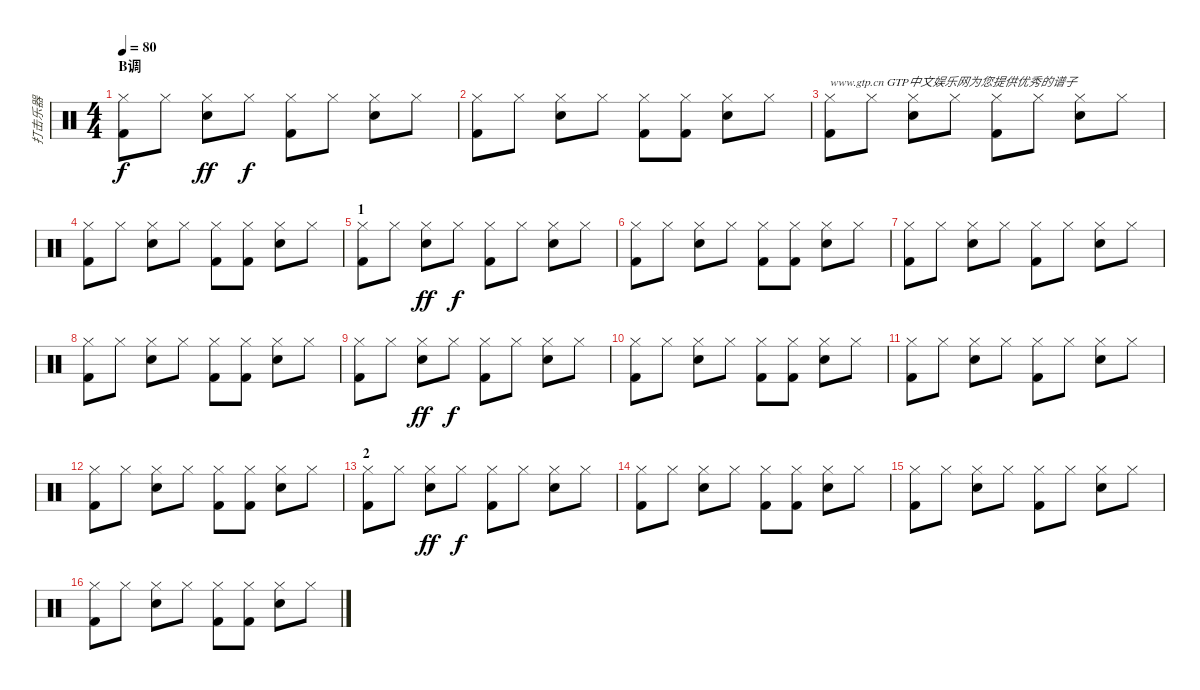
\track ("打击乐器" "打击乐器") {instrument percussion}
\staff {score}
\articulation defaults
\ts (4 4)
\section ("" "B调")
\tempo 80
\clef neutral
\ks c
("Hi-Hat (closed)" "Kick (hit) 2").8{dy f} "Hi-Hat (closed)".8 ("Hi-Hat (closed)" "Snare (hit) 2").8{dy ff} "Hi-Hat (closed)".8{dy f} ("Hi-Hat (closed)" "Kick (hit) 2").8 "Hi-Hat (closed)".8 ("Hi-Hat (closed)" "Snare (hit) 2").8 "Hi-Hat (closed)".8 |
("Hi-Hat (closed)" "Kick (hit) 2").8 "Hi-Hat (closed)".8 ("Hi-Hat (closed)" "Snare (hit) 2").8 "Hi-Hat (closed)".8 ("Hi-Hat (closed)" "Kick (hit) 2").8 ("Hi-Hat (closed)" "Kick (hit) 2").8 ("Hi-Hat (closed)" "Snare (hit) 2").8 "Hi-Hat (closed)".8 |
("Hi-Hat (closed)" "Kick (hit) 2").8{txt "www.gtp.cn GTP中文娱乐网为您提供优秀的谱子"} "Hi-Hat (closed)".8 ("Hi-Hat (closed)" "Snare (hit) 2").8 "Hi-Hat (closed)".8 ("Hi-Hat (closed)" "Kick (hit) 2").8 "Hi-Hat (closed)".8 ("Hi-Hat (closed)" "Snare (hit) 2").8 "Hi-Hat (closed)".8 |
("Hi-Hat (closed)" "Kick (hit) 2").8 "Hi-Hat (closed)".8 ("Hi-Hat (closed)" "Snare (hit) 2").8 "Hi-Hat (closed)".8 ("Hi-Hat (closed)" "Kick (hit) 2").8 ("Hi-Hat (closed)" "Kick (hit) 2").8 ("Hi-Hat (closed)" "Snare (hit) 2").8 "Hi-Hat (closed)".8 |
\section ("" "1")
("Hi-Hat (closed)" "Kick (hit) 2").8 "Hi-Hat (closed)".8 ("Hi-Hat (closed)" "Snare (hit) 2").8{dy ff} "Hi-Hat (closed)".8{dy f} ("Hi-Hat (closed)" "Kick (hit) 2").8 "Hi-Hat (closed)".8 ("Hi-Hat (closed)" "Snare (hit) 2").8 "Hi-Hat (closed)".8 |
("Hi-Hat (closed)" "Kick (hit) 2").8 "Hi-Hat (closed)".8 ("Hi-Hat (closed)" "Snare (hit) 2").8 "Hi-Hat (closed)".8 ("Hi-Hat (closed)" "Kick (hit) 2").8 ("Hi-Hat (closed)" "Kick (hit) 2").8 ("Hi-Hat (closed)" "Snare (hit) 2").8 "Hi-Hat (closed)".8 |
("Hi-Hat (closed)" "Kick (hit) 2").8 "Hi-Hat (closed)".8 ("Hi-Hat (closed)" "Snare (hit) 2").8 "Hi-Hat (closed)".8 ("Hi-Hat (closed)" "Kick (hit) 2").8 "Hi-Hat (closed)".8 ("Hi-Hat (closed)" "Snare (hit) 2").8 "Hi-Hat (closed)".8 |
("Hi-Hat (closed)" "Kick (hit) 2").8 "Hi-Hat (closed)".8 ("Hi-Hat (closed)" "Snare (hit) 2").8 "Hi-Hat (closed)".8 ("Hi-Hat (closed)" "Kick (hit) 2").8 ("Hi-Hat (closed)" "Kick (hit) 2").8 ("Hi-Hat (closed)" "Snare (hit) 2").8 "Hi-Hat (closed)".8 |
("Hi-Hat (closed)" "Kick (hit) 2").8 "Hi-Hat (closed)".8 ("Hi-Hat (closed)" "Snare (hit) 2").8{dy ff} "Hi-Hat (closed)".8{dy f} ("Hi-Hat (closed)" "Kick (hit) 2").8 "Hi-Hat (closed)".8 ("Hi-Hat (closed)" "Snare (hit) 2").8 "Hi-Hat (closed)".8 |
("Hi-Hat (closed)" "Kick (hit) 2").8 "Hi-Hat (closed)".8 ("Hi-Hat (closed)" "Snare (hit) 2").8 "Hi-Hat (closed)".8 ("Hi-Hat (closed)" "Kick (hit) 2").8 ("Hi-Hat (closed)" "Kick (hit) 2").8 ("Hi-Hat (closed)" "Snare (hit) 2").8 "Hi-Hat (closed)".8 |
("Hi-Hat (closed)" "Kick (hit) 2").8 "Hi-Hat (closed)".8 ("Hi-Hat (closed)" "Snare (hit) 2").8 "Hi-Hat (closed)".8 ("Hi-Hat (closed)" "Kick (hit) 2").8 "Hi-Hat (closed)".8 ("Hi-Hat (closed)" "Snare (hit) 2").8 "Hi-Hat (closed)".8 |
("Hi-Hat (closed)" "Kick (hit) 2").8 "Hi-Hat (closed)".8 ("Hi-Hat (closed)" "Snare (hit) 2").8 "Hi-Hat (closed)".8 ("Hi-Hat (closed)" "Kick (hit) 2").8 ("Hi-Hat (closed)" "Kick (hit) 2").8 ("Hi-Hat (closed)" "Snare (hit) 2").8 "Hi-Hat (closed)".8 |
\section ("" "2")
("Hi-Hat (closed)" "Kick (hit) 2").8 "Hi-Hat (closed)".8 ("Hi-Hat (closed)" "Snare (hit) 2").8{dy ff} "Hi-Hat (closed)".8{dy f} ("Hi-Hat (closed)" "Kick (hit) 2").8 "Hi-Hat (closed)".8 ("Hi-Hat (closed)" "Snare (hit) 2").8 "Hi-Hat (closed)".8 |
("Hi-Hat (closed)" "Kick (hit) 2").8 "Hi-Hat (closed)".8 ("Hi-Hat (closed)" "Snare (hit) 2").8 "Hi-Hat (closed)".8 ("Hi-Hat (closed)" "Kick (hit) 2").8 ("Hi-Hat (closed)" "Kick (hit) 2").8 ("Hi-Hat (closed)" "Snare (hit) 2").8 "Hi-Hat (closed)".8 |
("Hi-Hat (closed)" "Kick (hit) 2").8 "Hi-Hat (closed)".8 ("Hi-Hat (closed)" "Snare (hit) 2").8 "Hi-Hat (closed)".8 ("Hi-Hat (closed)" "Kick (hit) 2").8 "Hi-Hat (closed)".8 ("Hi-Hat (closed)" "Snare (hit) 2").8 "Hi-Hat (closed)".8 |
("Hi-Hat (closed)" "Kick (hit) 2").8 "Hi-Hat (closed)".8 ("Hi-Hat (closed)" "Snare (hit) 2").8 "Hi-Hat (closed)".8 ("Hi-Hat (closed)" "Kick (hit) 2").8 ("Hi-Hat (closed)" "Kick (hit) 2").8 ("Hi-Hat (closed)" "Snare (hit) 2").8 "Hi-Hat (closed)".8
